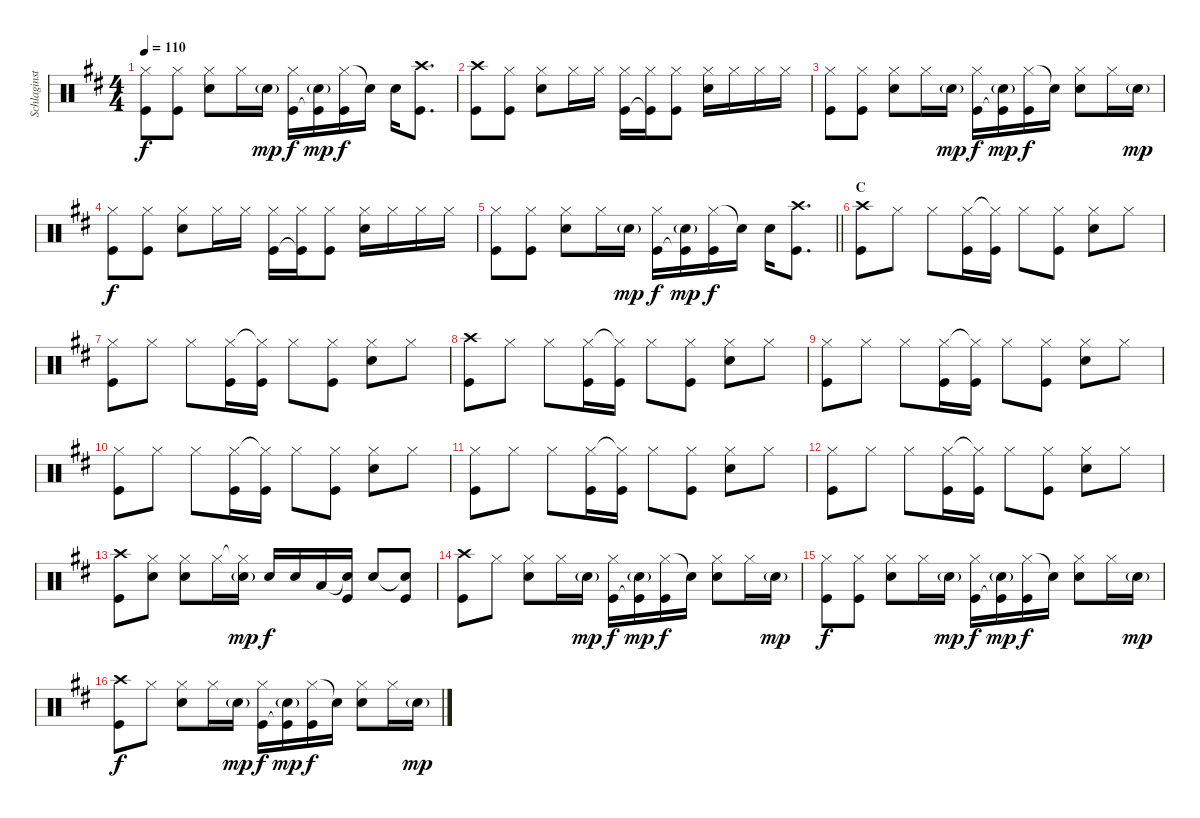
\track ("Schlaginstrumente - Auswahl" "Schlaginst") {instrument percussion}
\staff {score}
\articulation defaults
\ts (4 4)
\tempo 110
\clef neutral
\ks d
("Hi-Hat (closed)" "Kick (hit)").8{dy f} ("Hi-Hat (closed)" "Kick (hit)").8 ("Hi-Hat (closed)" "Snare (hit) 2").8 "Hi-Hat (closed)".16 "Snare (hit) 2"{g}.16{dy mp} ("Hi-Hat (closed)" "Kick (hit)").16{dy f} ("Snare (hit) 2"{g} "Kick (hit)"{t}).16{dy mp} ("Hi-Hat (closed)" "Kick (hit)").16{dy f} "Snare (hit)"{t}.16 "Snare (hit) 2".16 ("Crash high (hit)" "Kick (hit)").8{d} |
("Crash high (hit)" "Kick (hit)").8 ("Hi-Hat (closed)" "Kick (hit)").8 ("Hi-Hat (closed)" "Snare (hit) 2").8 "Hi-Hat (closed)".16 "Hi-Hat (closed)".16 ("Hi-Hat (closed)" "Kick (hit)").16 ("Hi-Hat (closed)" "Kick (hit)"{t}).16 ("Hi-Hat (closed)" "Kick (hit)").8 ("Hi-Hat (closed)" "Snare (hit) 2").16 "Hi-Hat (closed)".16 "Hi-Hat (closed)".16 "Hi-Hat (closed)".16 |
("Hi-Hat (closed)" "Kick (hit)").8 ("Hi-Hat (closed)" "Kick (hit)").8 ("Hi-Hat (closed)" "Snare (hit) 2").8 "Hi-Hat (closed)".16 "Snare (hit) 2"{g}.16{dy mp} ("Hi-Hat (closed)" "Kick (hit)").16{dy f} ("Snare (hit) 2"{g} "Kick (hit)"{t}).16{dy mp} ("Hi-Hat (closed)" "Kick (hit)").16{dy f} "Snare (hit)"{t}.16 ("Hi-Hat (closed)" "Snare (hit) 2").8 "Hi-Hat (closed)".16 "Snare (hit) 2"{g}.16{dy mp} |
("Hi-Hat (closed)" "Kick (hit)").8{dy f} ("Hi-Hat (closed)" "Kick (hit)").8 ("Hi-Hat (closed)" "Snare (hit) 2").8 "Hi-Hat (closed)".16 "Hi-Hat (closed)".16 ("Hi-Hat (closed)" "Kick (hit)").16 ("Hi-Hat (closed)" "Kick (hit)"{t}).16 ("Hi-Hat (closed)" "Kick (hit)").8 ("Hi-Hat (closed)" "Snare (hit) 2").16 "Hi-Hat (closed)".16 "Hi-Hat (closed)".16 "Hi-Hat (closed)".16 |
\barLineRight lightlight
("Hi-Hat (closed)" "Kick (hit)").8 ("Hi-Hat (closed)" "Kick (hit)").8 ("Hi-Hat (closed)" "Snare (hit) 2").8 "Hi-Hat (closed)".16 "Snare (hit) 2"{g}.16{dy mp} ("Hi-Hat (closed)" "Kick (hit)").16{dy f} ("Snare (hit) 2"{g} "Kick (hit)"{t}).16{dy mp} ("Hi-Hat (closed)" "Kick (hit)").16{dy f} "Snare (hit)"{t}.16 "Snare (hit) 2".16 ("Crash high (hit)" "Kick (hit)").8{d} |
\section ("" "C")
("Crash high (hit)" "Kick (hit)").8 "Hi-Hat (closed)".8 "Hi-Hat (closed)".8 ("Hi-Hat (closed)" "Kick (hit)").16 ("Hi-Hat (closed)"{t} "Kick (hit)").16 "Hi-Hat (closed)".8 ("Hi-Hat (closed)" "Kick (hit)").8 ("Hi-Hat (closed)" "Snare (hit) 2").8 "Hi-Hat (closed)".8 |
("Hi-Hat (closed)" "Kick (hit)").8 "Hi-Hat (closed)".8 "Hi-Hat (closed)".8 ("Hi-Hat (closed)" "Kick (hit)").16 ("Hi-Hat (closed)"{t} "Kick (hit)").16 "Hi-Hat (closed)".8 ("Hi-Hat (closed)" "Kick (hit)").8 ("Hi-Hat (closed)" "Snare (hit) 2").8 "Hi-Hat (closed)".8 |
("Crash high (hit)" "Kick (hit)").8 "Hi-Hat (closed)".8 "Hi-Hat (closed)".8 ("Hi-Hat (closed)" "Kick (hit)").16 ("Hi-Hat (closed)"{t} "Kick (hit)").16 "Hi-Hat (closed)".8 ("Hi-Hat (closed)" "Kick (hit)").8 ("Hi-Hat (closed)" "Snare (hit) 2").8 "Hi-Hat (closed)".8 |
("Hi-Hat (closed)" "Kick (hit)").8 "Hi-Hat (closed)".8 "Hi-Hat (closed)".8 ("Hi-Hat (closed)" "Kick (hit)").16 ("Hi-Hat (closed)"{t} "Kick (hit)").16 "Hi-Hat (closed)".8 ("Hi-Hat (closed)" "Kick (hit)").8 ("Hi-Hat (closed)" "Snare (hit) 2").8 "Hi-Hat (closed)".8 |
("Hi-Hat (closed)" "Kick (hit)").8 "Hi-Hat (closed)".8 "Hi-Hat (closed)".8 ("Hi-Hat (closed)" "Kick (hit)").16 ("Hi-Hat (closed)"{t} "Kick (hit)").16 "Hi-Hat (closed)".8 ("Hi-Hat (closed)" "Kick (hit)").8 ("Hi-Hat (closed)" "Snare (hit) 2").8 "Hi-Hat (closed)".8 |
("Hi-Hat (closed)" "Kick (hit)").8 "Hi-Hat (closed)".8 "Hi-Hat (closed)".8 ("Hi-Hat (closed)" "Kick (hit)").16 ("Hi-Hat (closed)"{t} "Kick (hit)").16 "Hi-Hat (closed)".8 ("Hi-Hat (closed)" "Kick (hit)").8 ("Hi-Hat (closed)" "Snare (hit) 2").8 "Hi-Hat (closed)".8 |
("Hi-Hat (closed)" "Kick (hit)").8 "Hi-Hat (closed)".8 "Hi-Hat (closed)".8 ("Hi-Hat (closed)" "Kick (hit)").16 ("Hi-Hat (closed)"{t} "Kick (hit)").16 "Hi-Hat (closed)".8 ("Hi-Hat (closed)" "Kick (hit)").8 ("Hi-Hat (closed)" "Snare (hit) 2").8 "Hi-Hat (closed)".8 |
("Crash high (hit)" "Kick (hit)").8 ("Hi-Hat (closed)" "Snare (hit) 2").8 ("Hi-Hat (closed)" "Snare (hit) 2").8 "Hi-Hat (closed)".16 ("Hi-Hat (closed)"{t} "Snare (hit) 2"{g}).16{dy mp} "Snare (hit) 2".16{dy f} "Snare (hit) 2".16 "Low Tom (hit)".16 ("Snare (hit)"{t} "Kick (hit)").16 "Snare (hit) 2".8 ("Snare (hit)"{t} "Kick (hit)").8 |
("Crash high (hit)" "Kick (hit)").8 "Hi-Hat (closed)".8 ("Hi-Hat (closed)" "Snare (hit) 2").8 "Hi-Hat (closed)".16 "Snare (hit) 2"{g}.16{dy mp} ("Hi-Hat (closed)" "Kick (hit)").16{dy f} ("Snare (hit) 2"{g} "Kick (hit)"{t}).16{dy mp} ("Hi-Hat (closed)" "Kick (hit)").16{dy f} "Snare (hit)"{t}.16 ("Hi-Hat (closed)" "Snare (hit) 2").8 "Hi-Hat (closed)".16 "Snare (hit) 2"{g}.16{dy mp} |
("Hi-Hat (closed)" "Kick (hit)").8{dy f} ("Hi-Hat (closed)" "Kick (hit)").8 ("Hi-Hat (closed)" "Snare (hit) 2").8 "Hi-Hat (closed)".16 "Snare (hit) 2"{g}.16{dy mp} ("Hi-Hat (closed)" "Kick (hit)").16{dy f} ("Snare (hit) 2"{g} "Kick (hit)"{t}).16{dy mp} ("Hi-Hat (closed)" "Kick (hit)").16{dy f} "Snare (hit)"{t}.16 ("Hi-Hat (closed)" "Snare (hit) 2").8 "Hi-Hat (closed)".16 "Snare (hit) 2"{g}.16{dy mp} |
("Crash high (hit)" "Kick (hit)").8{dy f} "Hi-Hat (closed)".8 ("Hi-Hat (closed)" "Snare (hit) 2").8 "Hi-Hat (closed)".16 "Snare (hit) 2"{g}.16{dy mp} ("Hi-Hat (closed)" "Kick (hit)").16{dy f} ("Snare (hit) 2"{g} "Kick (hit)"{t}).16{dy mp} ("Hi-Hat (closed)" "Kick (hit)").16{dy f} "Snare (hit)"{t}.16 ("Hi-Hat (closed)" "Snare (hit) 2").8 "Hi-Hat (closed)".16 "Snare (hit) 2"{g}.16{dy mp}
